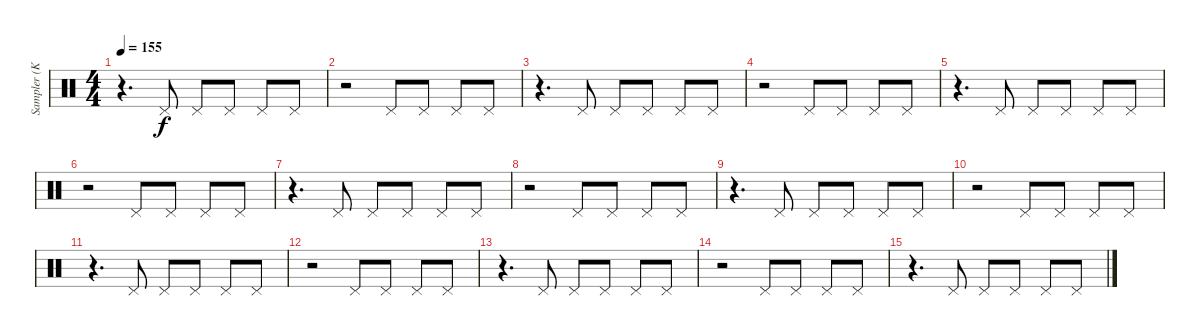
\track ("Sampler (Korg Radias)" "Sampler (K") {instrument percussion}
\staff {score}
\articulation defaults
\ts (4 4)
\tempo 155
\clef neutral
\ks c
r.4{d dy f} "Pedal Hi-Hat (hit)".8 "Pedal Hi-Hat (hit)".8 "Pedal Hi-Hat (hit)".8 "Pedal Hi-Hat (hit)".8 "Pedal Hi-Hat (hit)".8 |
r.2 "Pedal Hi-Hat (hit)".8 "Pedal Hi-Hat (hit)".8 "Pedal Hi-Hat (hit)".8 "Pedal Hi-Hat (hit)".8 |
r.4{d} "Pedal Hi-Hat (hit)".8 "Pedal Hi-Hat (hit)".8 "Pedal Hi-Hat (hit)".8 "Pedal Hi-Hat (hit)".8 "Pedal Hi-Hat (hit)".8 |
r.2 "Pedal Hi-Hat (hit)".8 "Pedal Hi-Hat (hit)".8 "Pedal Hi-Hat (hit)".8 "Pedal Hi-Hat (hit)".8 |
r.4{d} "Pedal Hi-Hat (hit)".8 "Pedal Hi-Hat (hit)".8 "Pedal Hi-Hat (hit)".8 "Pedal Hi-Hat (hit)".8 "Pedal Hi-Hat (hit)".8 |
r.2 "Pedal Hi-Hat (hit)".8 "Pedal Hi-Hat (hit)".8 "Pedal Hi-Hat (hit)".8 "Pedal Hi-Hat (hit)".8 |
r.4{d} "Pedal Hi-Hat (hit)".8 "Pedal Hi-Hat (hit)".8 "Pedal Hi-Hat (hit)".8 "Pedal Hi-Hat (hit)".8 "Pedal Hi-Hat (hit)".8 |
r.2 "Pedal Hi-Hat (hit)".8 "Pedal Hi-Hat (hit)".8 "Pedal Hi-Hat (hit)".8 "Pedal Hi-Hat (hit)".8 |
r.4{d} "Pedal Hi-Hat (hit)".8 "Pedal Hi-Hat (hit)".8 "Pedal Hi-Hat (hit)".8 "Pedal Hi-Hat (hit)".8 "Pedal Hi-Hat (hit)".8 |
r.2 "Pedal Hi-Hat (hit)".8 "Pedal Hi-Hat (hit)".8 "Pedal Hi-Hat (hit)".8 "Pedal Hi-Hat (hit)".8 |
r.4{d} "Pedal Hi-Hat (hit)".8 "Pedal Hi-Hat (hit)".8 "Pedal Hi-Hat (hit)".8 "Pedal Hi-Hat (hit)".8 "Pedal Hi-Hat (hit)".8 |
r.2 "Pedal Hi-Hat (hit)".8 "Pedal Hi-Hat (hit)".8 "Pedal Hi-Hat (hit)".8 "Pedal Hi-Hat (hit)".8 |
r.4{d} "Pedal Hi-Hat (hit)".8 "Pedal Hi-Hat (hit)".8 "Pedal Hi-Hat (hit)".8 "Pedal Hi-Hat (hit)".8 "Pedal Hi-Hat (hit)".8 |
r.2 "Pedal Hi-Hat (hit)".8 "Pedal Hi-Hat (hit)".8 "Pedal Hi-Hat (hit)".8 "Pedal Hi-Hat (hit)".8 |
r.4{d} "Pedal Hi-Hat (hit)".8 "Pedal Hi-Hat (hit)".8 "Pedal Hi-Hat (hit)".8 "Pedal Hi-Hat (hit)".8 "Pedal Hi-Hat (hit)".8
